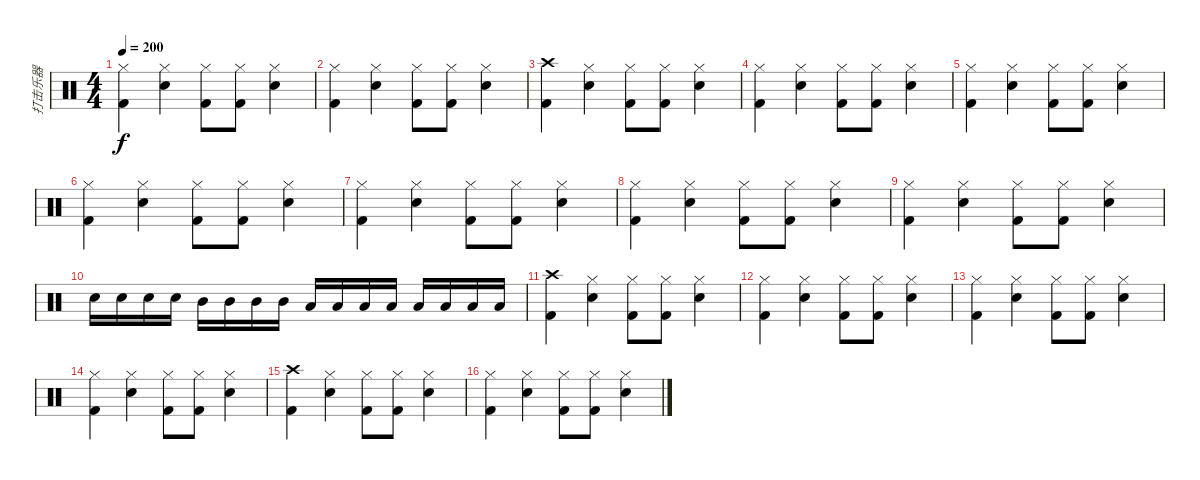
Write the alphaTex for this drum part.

\track ("打击乐器" "打击乐器") {instrument percussion}
\staff {score}
\articulation defaults
\ts (4 4)
\tempo 200
\clef neutral
\ks c
("Hi-Hat (closed)" "Kick (hit) 2").4{dy f} ("Hi-Hat (closed)" "Snare (hit) 2").4 ("Hi-Hat (closed)" "Kick (hit) 2").8 ("Hi-Hat (closed)" "Kick (hit) 2").8 ("Hi-Hat (closed)" "Snare (hit) 2").4 |
("Hi-Hat (closed)" "Kick (hit) 2").4 ("Hi-Hat (closed)" "Snare (hit) 2").4 ("Hi-Hat (closed)" "Kick (hit) 2").8 ("Hi-Hat (closed)" "Kick (hit) 2").8 ("Hi-Hat (closed)" "Snare (hit) 2").4 |
("Crash high (hit)" "Kick (hit) 2").4 ("Hi-Hat (closed)" "Snare (hit) 2").4 ("Hi-Hat (closed)" "Kick (hit) 2").8 ("Hi-Hat (closed)" "Kick (hit) 2").8 ("Hi-Hat (closed)" "Snare (hit) 2").4 |
("Hi-Hat (closed)" "Kick (hit) 2").4 ("Hi-Hat (closed)" "Snare (hit) 2").4 ("Hi-Hat (closed)" "Kick (hit) 2").8 ("Hi-Hat (closed)" "Kick (hit) 2").8 ("Hi-Hat (closed)" "Snare (hit) 2").4 |
("Hi-Hat (closed)" "Kick (hit) 2").4 ("Hi-Hat (closed)" "Snare (hit) 2").4 ("Hi-Hat (closed)" "Kick (hit) 2").8 ("Hi-Hat (closed)" "Kick (hit) 2").8 ("Hi-Hat (closed)" "Snare (hit) 2").4 |
("Hi-Hat (closed)" "Kick (hit) 2").4 ("Hi-Hat (closed)" "Snare (hit) 2").4 ("Hi-Hat (closed)" "Kick (hit) 2").8 ("Hi-Hat (closed)" "Kick (hit) 2").8 ("Hi-Hat (closed)" "Snare (hit) 2").4 |
("Hi-Hat (closed)" "Kick (hit) 2").4 ("Hi-Hat (closed)" "Snare (hit) 2").4 ("Hi-Hat (closed)" "Kick (hit) 2").8 ("Hi-Hat (closed)" "Kick (hit) 2").8 ("Hi-Hat (closed)" "Snare (hit) 2").4 |
("Hi-Hat (closed)" "Kick (hit) 2").4 ("Hi-Hat (closed)" "Snare (hit) 2").4 ("Hi-Hat (closed)" "Kick (hit) 2").8 ("Hi-Hat (closed)" "Kick (hit) 2").8 ("Hi-Hat (closed)" "Snare (hit) 2").4 |
("Hi-Hat (closed)" "Kick (hit) 2").4 ("Hi-Hat (closed)" "Snare (hit) 2").4 ("Hi-Hat (closed)" "Kick (hit) 2").8 ("Hi-Hat (closed)" "Kick (hit) 2").8 ("Hi-Hat (closed)" "Snare (hit) 2").4 |
"Snare (hit) 2".16 "Snare (hit) 2".16 "Snare (hit) 2".16 "Snare (hit) 2".16 "Mid Tom (hit)".16 "Mid Tom (hit)".16 "Mid Tom (hit)".16 "Mid Tom (hit)".16 "Low Tom (hit)".16 "Low Tom (hit)".16 "Low Tom (hit)".16 "Low Tom (hit)".16 "Low Floor Tom (hit)".16 "Low Floor Tom (hit)".16 "Low Floor Tom (hit)".16 "Low Floor Tom (hit)".16 |
("Crash high (hit)" "Kick (hit) 2").4 ("Hi-Hat (closed)" "Snare (hit) 2").4 ("Hi-Hat (closed)" "Kick (hit) 2").8 ("Hi-Hat (closed)" "Kick (hit) 2").8 ("Hi-Hat (closed)" "Snare (hit) 2").4 |
("Hi-Hat (closed)" "Kick (hit) 2").4 ("Hi-Hat (closed)" "Snare (hit) 2").4 ("Hi-Hat (closed)" "Kick (hit) 2").8 ("Hi-Hat (closed)" "Kick (hit) 2").8 ("Hi-Hat (closed)" "Snare (hit) 2").4 |
("Hi-Hat (closed)" "Kick (hit) 2").4 ("Hi-Hat (closed)" "Snare (hit) 2").4 ("Hi-Hat (closed)" "Kick (hit) 2").8 ("Hi-Hat (closed)" "Kick (hit) 2").8 ("Hi-Hat (closed)" "Snare (hit) 2").4 |
("Hi-Hat (closed)" "Kick (hit) 2").4 ("Hi-Hat (closed)" "Snare (hit) 2").4 ("Hi-Hat (closed)" "Kick (hit) 2").8 ("Hi-Hat (closed)" "Kick (hit) 2").8 ("Hi-Hat (closed)" "Snare (hit) 2").4 |
("Crash high (hit)" "Kick (hit) 2").4 ("Hi-Hat (closed)" "Snare (hit) 2").4 ("Hi-Hat (closed)" "Kick (hit) 2").8 ("Hi-Hat (closed)" "Kick (hit) 2").8 ("Hi-Hat (closed)" "Snare (hit) 2").4 |
("Hi-Hat (closed)" "Kick (hit) 2").4 ("Hi-Hat (closed)" "Snare (hit) 2").4 ("Hi-Hat (closed)" "Kick (hit) 2").8 ("Hi-Hat (closed)" "Kick (hit) 2").8 ("Hi-Hat (closed)" "Snare (hit) 2").4
